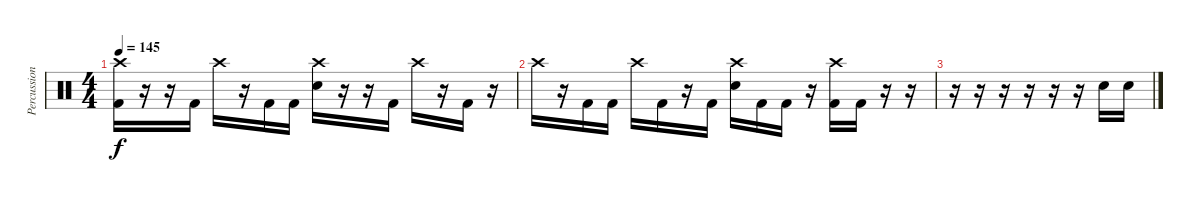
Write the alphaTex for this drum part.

\track ("Percussion" "Percussion") {instrument percussion}
\staff {score}
\articulation defaults
\ts (4 4)
\tempo 145
\clef neutral
\ks c
("Crash high (hit)" "Kick (hit) 2").16{dy f} r.16 r.16 "Kick (hit) 2".16 "Crash high (hit)".16 r.16 "Kick (hit) 2".16 "Kick (hit) 2".16 ("Crash high (hit)" "Snare (hit) 2").16 r.16 r.16 "Kick (hit) 2".16 "Crash high (hit)".16 r.16 "Kick (hit) 2".16 r.16 |
"Crash high (hit)".16 r.16 "Kick (hit) 2".16 "Kick (hit) 2".16 "Crash high (hit)".16 "Kick (hit) 2".16 r.16 "Kick (hit) 2".16 ("Crash high (hit)" "Snare (hit) 2").16 "Kick (hit) 2".16 "Kick (hit) 2".16 r.16 ("Crash high (hit)" "Kick (hit) 2").16 "Kick (hit) 2".16 r.16 r.16 |
r.16 r.16 r.16 r.16 r.16 r.16 "Snare (hit) 2".16 "Snare (hit) 2".16
